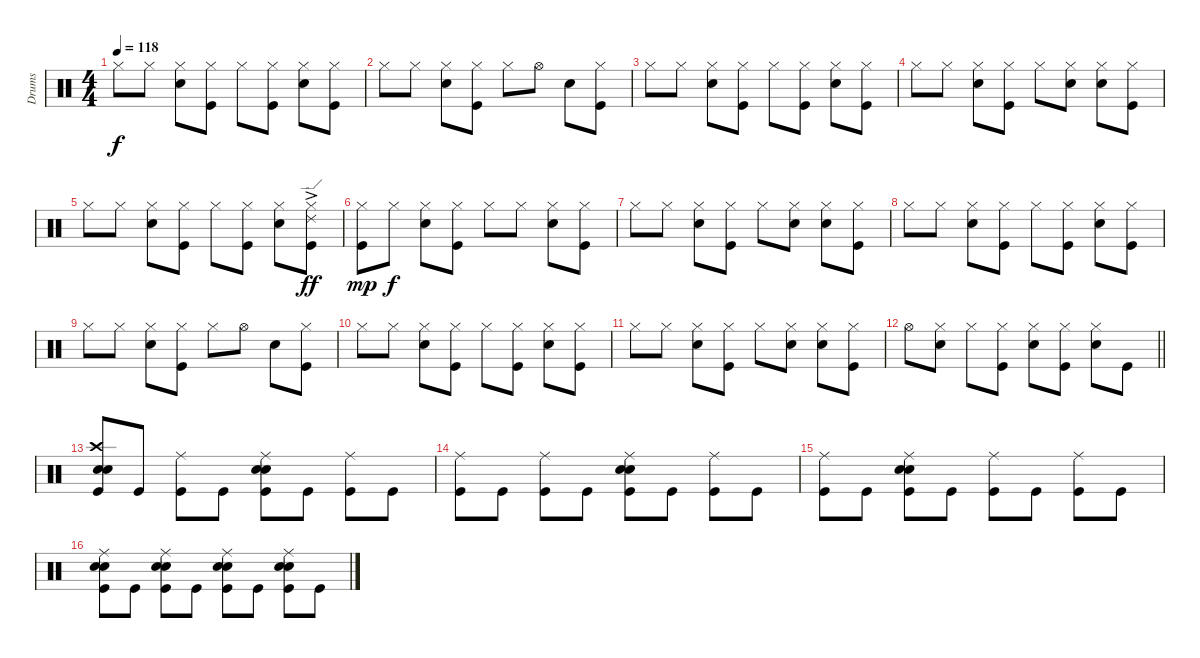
\track ("Drums" "Drums") {instrument percussion}
\staff {score}
\articulation defaults
\ts (4 4)
\tempo 118
\clef neutral
\ks c "Hi-Hat (closed)".8{dy f} "Hi-Hat (closed)".8
("Hi-Hat (closed)" "Snare (hit) 2").8 ("Hi-Hat (closed)" "Kick (hit)").8 "Hi-Hat (closed)".8 ("Hi-Hat (closed)" "Kick (hit)").8 ("Hi-Hat (closed)" "Snare (hit) 2").8 ("Hi-Hat (closed)" "Kick (hit)").8 |
"Hi-Hat (closed)".8 "Hi-Hat (closed)".8 ("Hi-Hat (closed)" "Snare (hit) 2").8 ("Hi-Hat (closed)" "Kick (hit)").8 "Hi-Hat (closed)".8 "Hi-Hat (open)".8 "Snare (hit) 2".8 ("Hi-Hat (closed)" "Kick (hit)").8 |
"Hi-Hat (closed)".8 "Hi-Hat (closed)".8 ("Hi-Hat (closed)" "Snare (hit) 2").8 ("Hi-Hat (closed)" "Kick (hit)").8 "Hi-Hat (closed)".8 ("Hi-Hat (closed)" "Kick (hit)").8 ("Hi-Hat (closed)" "Snare (hit) 2").8 ("Hi-Hat (closed)" "Kick (hit)").8 |
"Hi-Hat (closed)".8 "Hi-Hat (closed)".8 ("Hi-Hat (closed)" "Snare (hit) 2").8 ("Hi-Hat (closed)" "Kick (hit)").8 "Hi-Hat (closed)".8 ("Hi-Hat (closed)" "Snare (hit) 2").8 ("Hi-Hat (closed)" "Snare (hit) 2").8 ("Hi-Hat (closed)" "Kick (hit)").8 |
"Hi-Hat (closed)".8 "Hi-Hat (closed)".8 ("Hi-Hat (closed)" "Snare (hit) 2").8 ("Hi-Hat (closed)" "Kick (hit)").8 "Hi-Hat (closed)".8 ("Hi-Hat (closed)" "Kick (hit)").8 ("Hi-Hat (closed)" "Snare (hit) 2").8 ("Hi-Hat (closed)" "Ride (edge) 2"{ac} "Kick (hit)").8{dy ff} |
("Hi-Hat (closed)" "Kick (hit)").8{dy mp} "Hi-Hat (closed)".8{dy f} ("Hi-Hat (closed)" "Snare (hit) 2").8 ("Hi-Hat (closed)" "Kick (hit)").8 "Hi-Hat (closed)".8 "Hi-Hat (closed)".8 ("Hi-Hat (closed)" "Snare (hit) 2").8 ("Hi-Hat (closed)" "Kick (hit)").8 |
"Hi-Hat (closed)".8 "Hi-Hat (closed)".8 ("Hi-Hat (closed)" "Snare (hit) 2").8 ("Hi-Hat (closed)" "Kick (hit)").8 "Hi-Hat (closed)".8 ("Hi-Hat (closed)" "Snare (hit) 2").8 ("Hi-Hat (closed)" "Snare (hit) 2").8 ("Hi-Hat (closed)" "Kick (hit)").8 |
"Hi-Hat (closed)".8 "Hi-Hat (closed)".8 ("Hi-Hat (closed)" "Snare (hit) 2").8 ("Hi-Hat (closed)" "Kick (hit)").8 "Hi-Hat (closed)".8 ("Hi-Hat (closed)" "Kick (hit)").8 ("Hi-Hat (closed)" "Snare (hit) 2").8 ("Hi-Hat (closed)" "Kick (hit)").8 |
"Hi-Hat (closed)".8 "Hi-Hat (closed)".8 ("Hi-Hat (closed)" "Snare (hit) 2").8 ("Hi-Hat (closed)" "Kick (hit)").8 "Hi-Hat (closed)".8 "Hi-Hat (open)".8 "Snare (hit) 2".8 ("Hi-Hat (closed)" "Kick (hit)").8 |
"Hi-Hat (closed)".8 "Hi-Hat (closed)".8 ("Hi-Hat (closed)" "Snare (hit) 2").8 ("Hi-Hat (closed)" "Kick (hit)").8 "Hi-Hat (closed)".8 ("Hi-Hat (closed)" "Kick (hit)").8 ("Hi-Hat (closed)" "Snare (hit) 2").8 ("Hi-Hat (closed)" "Kick (hit)").8 |
"Hi-Hat (closed)".8 "Hi-Hat (closed)".8 ("Hi-Hat (closed)" "Snare (hit) 2").8 ("Hi-Hat (closed)" "Kick (hit)").8 "Hi-Hat (closed)".8 ("Hi-Hat (closed)" "Snare (hit) 2").8 ("Hi-Hat (closed)" "Snare (hit) 2").8 ("Hi-Hat (closed)" "Kick (hit)").8 |
\barLineRight lightlight "Hi-Hat (open)".8
("Hi-Hat (closed)" "Snare (hit) 2").8 "Hi-Hat (closed)".8 ("Hi-Hat (closed)" "Kick (hit)").8 ("Hi-Hat (closed)" "Snare (hit) 2").8 ("Hi-Hat (closed)" "Kick (hit)").8 ("Hi-Hat (closed)" "Snare (hit) 2").8 "Kick (hit)".8 |
("Crash high (hit)" "Snare (hit) 2" "Electric Snare (hit)" "Kick (hit)").8 "Kick (hit)".8 ("Ride (middle)" "Kick (hit)").8 "Kick (hit)".8 ("Ride (middle)" "Snare (hit) 2" "Electric Snare (hit)" "Kick (hit)").8 "Kick (hit)".8 ("Ride (middle)" "Kick (hit)").8 "Kick (hit)".8 |
("Ride (middle)" "Kick (hit)").8 "Kick (hit)".8 ("Ride (middle)" "Kick (hit)").8 "Kick (hit)".8 ("Ride (middle)" "Snare (hit) 2" "Electric Snare (hit)" "Kick (hit)").8 "Kick (hit)".8 ("Ride (middle)" "Kick (hit)").8 "Kick (hit)".8 |
("Ride (middle)" "Kick (hit)").8 "Kick (hit)".8 ("Ride (middle)" "Snare (hit) 2" "Electric Snare (hit)" "Kick (hit)").8 "Kick (hit)".8 ("Ride (middle)" "Kick (hit)").8 "Kick (hit)".8 ("Ride (middle)" "Kick (hit)").8 "Kick (hit)".8 |
("Ride (middle)" "Snare (hit) 2" "Electric Snare (hit)" "Kick (hit)").8 "Kick (hit)".8 ("Ride (middle)" "Snare (hit) 2" "Electric Snare (hit)" "Kick (hit)").8 "Kick (hit)".8 ("Ride (middle)" "Snare (hit) 2" "Electric Snare (hit)" "Kick (hit)").8 "Kick (hit)".8 ("Ride (middle)" "Snare (hit) 2" "Electric Snare (hit)" "Kick (hit)").8 "Kick (hit)".8
